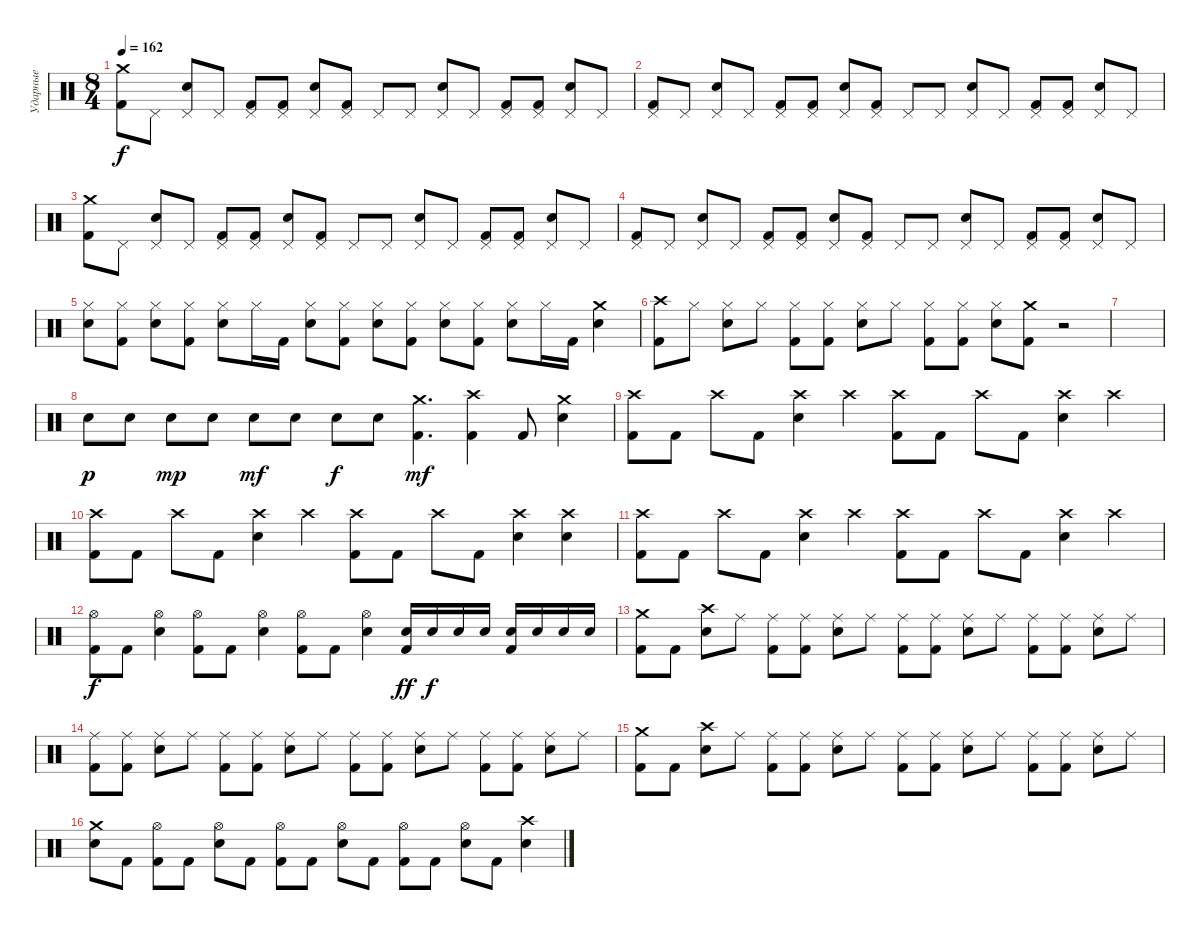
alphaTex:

\track ("Ударные" "Ударные") {instrument percussion}
\staff {score}
\articulation defaults
\ts (8 4)
\tempo 162
\clef neutral
\ks c
("Crash medium (hit)" "Kick (hit) 2").8{dy f} "Pedal Hi-Hat (hit)".8 ("Pedal Hi-Hat (hit)" "Snare (hit) 2").8 "Pedal Hi-Hat (hit)".8 ("Pedal Hi-Hat (hit)" "Kick (hit) 2").8 ("Pedal Hi-Hat (hit)" "Kick (hit) 2").8 ("Pedal Hi-Hat (hit)" "Snare (hit) 2").8 ("Pedal Hi-Hat (hit)" "Kick (hit) 2").8 "Pedal Hi-Hat (hit)".8 "Pedal Hi-Hat (hit)".8 ("Pedal Hi-Hat (hit)" "Snare (hit) 2").8 "Pedal Hi-Hat (hit)".8 ("Pedal Hi-Hat (hit)" "Kick (hit) 2").8 ("Pedal Hi-Hat (hit)" "Kick (hit) 2").8 ("Pedal Hi-Hat (hit)" "Snare (hit) 2").8 "Pedal Hi-Hat (hit)".8 |
("Pedal Hi-Hat (hit)" "Kick (hit) 2").8 "Pedal Hi-Hat (hit)".8 ("Pedal Hi-Hat (hit)" "Snare (hit) 2").8 "Pedal Hi-Hat (hit)".8 ("Pedal Hi-Hat (hit)" "Kick (hit) 2").8 ("Pedal Hi-Hat (hit)" "Kick (hit) 2").8 ("Pedal Hi-Hat (hit)" "Snare (hit) 2").8 ("Pedal Hi-Hat (hit)" "Kick (hit) 2").8 "Pedal Hi-Hat (hit)".8 "Pedal Hi-Hat (hit)".8 ("Pedal Hi-Hat (hit)" "Snare (hit) 2").8 "Pedal Hi-Hat (hit)".8 ("Pedal Hi-Hat (hit)" "Kick (hit) 2").8 ("Pedal Hi-Hat (hit)" "Kick (hit) 2").8 ("Pedal Hi-Hat (hit)" "Snare (hit) 2").8 "Pedal Hi-Hat (hit)".8 |
("Crash medium (hit)" "Kick (hit) 2").8 "Pedal Hi-Hat (hit)".8 ("Pedal Hi-Hat (hit)" "Snare (hit) 2").8 "Pedal Hi-Hat (hit)".8 ("Pedal Hi-Hat (hit)" "Kick (hit) 2").8 ("Pedal Hi-Hat (hit)" "Kick (hit) 2").8 ("Pedal Hi-Hat (hit)" "Snare (hit) 2").8 ("Pedal Hi-Hat (hit)" "Kick (hit) 2").8 "Pedal Hi-Hat (hit)".8 "Pedal Hi-Hat (hit)".8 ("Pedal Hi-Hat (hit)" "Snare (hit) 2").8 "Pedal Hi-Hat (hit)".8 ("Pedal Hi-Hat (hit)" "Kick (hit) 2").8 ("Pedal Hi-Hat (hit)" "Kick (hit) 2").8 ("Pedal Hi-Hat (hit)" "Snare (hit) 2").8 "Pedal Hi-Hat (hit)".8 |
("Pedal Hi-Hat (hit)" "Kick (hit) 2").8 "Pedal Hi-Hat (hit)".8 ("Pedal Hi-Hat (hit)" "Snare (hit) 2").8 "Pedal Hi-Hat (hit)".8 ("Pedal Hi-Hat (hit)" "Kick (hit) 2").8 ("Pedal Hi-Hat (hit)" "Kick (hit) 2").8 ("Pedal Hi-Hat (hit)" "Snare (hit) 2").8 ("Pedal Hi-Hat (hit)" "Kick (hit) 2").8 "Pedal Hi-Hat (hit)".8 "Pedal Hi-Hat (hit)".8 ("Pedal Hi-Hat (hit)" "Snare (hit) 2").8 "Pedal Hi-Hat (hit)".8 ("Pedal Hi-Hat (hit)" "Kick (hit) 2").8 ("Pedal Hi-Hat (hit)" "Kick (hit) 2").8 ("Pedal Hi-Hat (hit)" "Snare (hit) 2").8 "Pedal Hi-Hat (hit)".8 |
("Hi-Hat (closed)" "Snare (hit) 2").8 ("Hi-Hat (closed)" "Kick (hit) 2").8 ("Hi-Hat (closed)" "Snare (hit) 2").8 ("Hi-Hat (closed)" "Kick (hit) 2").8 ("Hi-Hat (closed)" "Snare (hit) 2").8 "Hi-Hat (closed)".16 "Kick (hit) 2".16 ("Hi-Hat (closed)" "Snare (hit) 2").8 ("Hi-Hat (closed)" "Kick (hit) 2").8 ("Hi-Hat (closed)" "Snare (hit) 2").8 ("Hi-Hat (closed)" "Kick (hit) 2").8 ("Hi-Hat (closed)" "Snare (hit) 2").8 ("Hi-Hat (closed)" "Kick (hit) 2").8 ("Hi-Hat (closed)" "Snare (hit) 2").8 "Hi-Hat (closed)".16 "Kick (hit) 2".16 ("Crash medium (hit)" "Snare (hit) 2").4 |
("Crash high (hit)" "Kick (hit) 2").8 "Hi-Hat (closed)".8 ("Hi-Hat (closed)" "Snare (hit) 2").8 "Hi-Hat (closed)".8 ("Hi-Hat (closed)" "Kick (hit) 2").8 ("Hi-Hat (closed)" "Kick (hit) 2").8 ("Hi-Hat (closed)" "Snare (hit) 2").8 "Hi-Hat (closed)".8 ("Hi-Hat (closed)" "Kick (hit) 2").8 ("Hi-Hat (closed)" "Kick (hit) 2").8 ("Hi-Hat (closed)" "Snare (hit) 2").8 ("Crash medium (hit)" "Kick (hit) 2").8 r.2 |
|
"Snare (hit) 2".8{dy p} "Snare (hit) 2".8 "Snare (hit) 2".8{dy mp} "Snare (hit) 2".8 "Snare (hit) 2".8{dy mf} "Snare (hit) 2".8 "Snare (hit) 2".8{dy f} "Snare (hit) 2".8 ("Crash medium (hit)" "Kick (hit) 2").4{d dy mf} ("Crash high (hit)" "Kick (hit) 2").4 "Kick (hit) 2".8 ("Crash medium (hit)" "Snare (hit) 2").4 |
("Crash high (hit)" "Kick (hit) 2").8 "Kick (hit) 2".8 "Crash high (hit)".8 "Kick (hit) 2".8 ("Crash high (hit)" "Snare (hit) 2").4 "Crash high (hit)".4 ("Crash high (hit)" "Kick (hit) 2").8 "Kick (hit) 2".8 "Crash high (hit)".8 "Kick (hit) 2".8 ("Crash high (hit)" "Snare (hit) 2").4 "Crash high (hit)".4 |
("Crash high (hit)" "Kick (hit) 2").8 "Kick (hit) 2".8 "Crash high (hit)".8 "Kick (hit) 2".8 ("Crash high (hit)" "Snare (hit) 2").4 "Crash high (hit)".4 ("Crash high (hit)" "Kick (hit) 2").8 "Kick (hit) 2".8 "Crash high (hit)".8 "Kick (hit) 2".8 ("Crash high (hit)" "Snare (hit) 2").4 ("Crash high (hit)" "Snare (hit) 2").4 |
("Crash high (hit)" "Kick (hit) 2").8 "Kick (hit) 2".8 "Crash high (hit)".8 "Kick (hit) 2".8 ("Crash high (hit)" "Snare (hit) 2").4 "Crash high (hit)".4 ("Crash high (hit)" "Kick (hit) 2").8 "Kick (hit) 2".8 "Crash high (hit)".8 "Kick (hit) 2".8 ("Crash high (hit)" "Snare (hit) 2").4 "Crash high (hit)".4 |
("Hi-Hat (open)" "Kick (hit) 2").8{dy f} "Kick (hit) 2".8 ("Hi-Hat (open)" "Snare (hit) 2").4 ("Hi-Hat (open)" "Kick (hit) 2").8 "Kick (hit) 2".8 ("Hi-Hat (open)" "Snare (hit) 2").4 ("Hi-Hat (open)" "Kick (hit) 2").8 "Kick (hit) 2".8 ("Hi-Hat (open)" "Snare (hit) 2").4 ("Snare (hit) 2" "Kick (hit) 2").16{dy ff} "Snare (hit) 2".16{dy f} "Snare (hit) 2".16 "Snare (hit) 2".16 ("Snare (hit) 2" "Kick (hit) 2").16 "Snare (hit) 2".16 "Snare (hit) 2".16 "Snare (hit) 2".16 |
("Crash medium (hit)" "Kick (hit) 2").8 "Kick (hit) 2".8 ("Crash high (hit)" "Snare (hit) 2").8 "Ride (middle)".8 ("Ride (middle)" "Kick (hit) 2").8 ("Ride (middle)" "Kick (hit) 2").8 ("Ride (middle)" "Snare (hit) 2").8 "Ride (middle)".8 ("Ride (middle)" "Kick (hit) 2").8 ("Ride (middle)" "Kick (hit) 2").8 ("Ride (middle)" "Snare (hit) 2").8 "Ride (middle)".8 ("Ride (middle)" "Kick (hit) 2").8 ("Ride (middle)" "Kick (hit) 2").8 ("Ride (middle)" "Snare (hit) 2").8 "Ride (middle)".8 |
("Ride (middle)" "Kick (hit) 2").8 ("Ride (middle)" "Kick (hit) 2").8 ("Ride (middle)" "Snare (hit) 2").8 "Ride (middle)".8 ("Ride (middle)" "Kick (hit) 2").8 ("Ride (middle)" "Kick (hit) 2").8 ("Ride (middle)" "Snare (hit) 2").8 "Ride (middle)".8 ("Ride (middle)" "Kick (hit) 2").8 ("Ride (middle)" "Kick (hit) 2").8 ("Ride (middle)" "Snare (hit) 2").8 "Ride (middle)".8 ("Ride (middle)" "Kick (hit) 2").8 ("Ride (middle)" "Kick (hit) 2").8 ("Ride (middle)" "Snare (hit) 2").8 "Ride (middle)".8 |
("Crash medium (hit)" "Kick (hit) 2").8 "Kick (hit) 2".8 ("Crash high (hit)" "Snare (hit) 2").8 "Ride (middle)".8 ("Ride (middle)" "Kick (hit) 2").8 ("Ride (middle)" "Kick (hit) 2").8 ("Ride (middle)" "Snare (hit) 2").8 "Ride (middle)".8 ("Ride (middle)" "Kick (hit) 2").8 ("Ride (middle)" "Kick (hit) 2").8 ("Ride (middle)" "Snare (hit) 2").8 "Ride (middle)".8 ("Ride (middle)" "Kick (hit) 2").8 ("Ride (middle)" "Kick (hit) 2").8 ("Ride (middle)" "Snare (hit) 2").8 "Ride (middle)".8 |
("Crash medium (hit)" "Snare (hit) 2").8 "Kick (hit) 2".8 ("Hi-Hat (open)" "Kick (hit) 2").8 "Kick (hit) 2".8 ("Hi-Hat (open)" "Snare (hit) 2").8 "Kick (hit) 2".8 ("Hi-Hat (open)" "Kick (hit) 2").8 "Kick (hit) 2".8 ("Hi-Hat (open)" "Snare (hit) 2").8 "Kick (hit) 2".8 ("Hi-Hat (open)" "Kick (hit) 2").8 "Kick (hit) 2".8 ("Hi-Hat (open)" "Snare (hit) 2").8 "Kick (hit) 2".8 ("Crash high (hit)" "Snare (hit) 2").4
